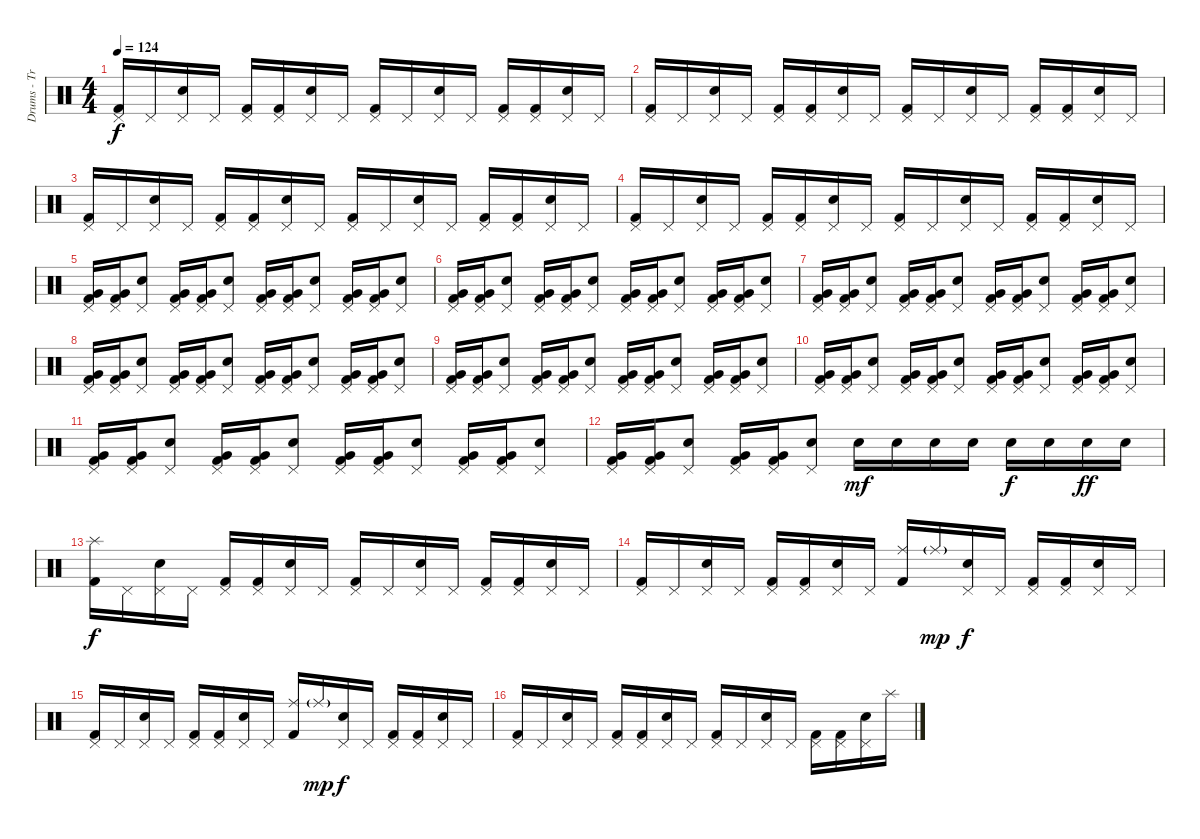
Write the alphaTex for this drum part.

\track ("Drums - Travis Barker" "Drums - Tr") {instrument percussion}
\staff {score}
\articulation defaults
\ts (4 4)
\tempo 124
\clef neutral
\ks c
("Pedal Hi-Hat (hit)" "Kick (hit) 2").16{dy f} "Pedal Hi-Hat (hit)".16 ("Pedal Hi-Hat (hit)" "Electric Snare (hit)").16 "Pedal Hi-Hat (hit)".16 ("Pedal Hi-Hat (hit)" "Kick (hit) 2").16 ("Pedal Hi-Hat (hit)" "Kick (hit) 2").16 ("Pedal Hi-Hat (hit)" "Electric Snare (hit)").16 "Pedal Hi-Hat (hit)".16 ("Pedal Hi-Hat (hit)" "Kick (hit) 2").16 "Pedal Hi-Hat (hit)".16 ("Pedal Hi-Hat (hit)" "Electric Snare (hit)").16 "Pedal Hi-Hat (hit)".16 ("Pedal Hi-Hat (hit)" "Kick (hit) 2").16 ("Pedal Hi-Hat (hit)" "Kick (hit) 2").16 ("Pedal Hi-Hat (hit)" "Electric Snare (hit)").16 "Pedal Hi-Hat (hit)".16 |
("Pedal Hi-Hat (hit)" "Kick (hit) 2").16 "Pedal Hi-Hat (hit)".16 ("Pedal Hi-Hat (hit)" "Electric Snare (hit)").16 "Pedal Hi-Hat (hit)".16 ("Pedal Hi-Hat (hit)" "Kick (hit) 2").16 ("Pedal Hi-Hat (hit)" "Kick (hit) 2").16 ("Pedal Hi-Hat (hit)" "Electric Snare (hit)").16 "Pedal Hi-Hat (hit)".16 ("Pedal Hi-Hat (hit)" "Kick (hit) 2").16 "Pedal Hi-Hat (hit)".16 ("Pedal Hi-Hat (hit)" "Electric Snare (hit)").16 "Pedal Hi-Hat (hit)".16 ("Pedal Hi-Hat (hit)" "Kick (hit) 2").16 ("Pedal Hi-Hat (hit)" "Kick (hit) 2").16 ("Pedal Hi-Hat (hit)" "Electric Snare (hit)").16 "Pedal Hi-Hat (hit)".16 |
("Pedal Hi-Hat (hit)" "Kick (hit) 2").16 "Pedal Hi-Hat (hit)".16 ("Pedal Hi-Hat (hit)" "Electric Snare (hit)").16 "Pedal Hi-Hat (hit)".16 ("Pedal Hi-Hat (hit)" "Kick (hit) 2").16 ("Pedal Hi-Hat (hit)" "Kick (hit) 2").16 ("Pedal Hi-Hat (hit)" "Electric Snare (hit)").16 "Pedal Hi-Hat (hit)".16 ("Pedal Hi-Hat (hit)" "Kick (hit) 2").16 "Pedal Hi-Hat (hit)".16 ("Pedal Hi-Hat (hit)" "Electric Snare (hit)").16 "Pedal Hi-Hat (hit)".16 ("Pedal Hi-Hat (hit)" "Kick (hit) 2").16 ("Pedal Hi-Hat (hit)" "Kick (hit) 2").16 ("Pedal Hi-Hat (hit)" "Electric Snare (hit)").16 "Pedal Hi-Hat (hit)".16 |
("Pedal Hi-Hat (hit)" "Kick (hit) 2").16 "Pedal Hi-Hat (hit)".16 ("Pedal Hi-Hat (hit)" "Electric Snare (hit)").16 "Pedal Hi-Hat (hit)".16 ("Pedal Hi-Hat (hit)" "Kick (hit) 2").16 ("Pedal Hi-Hat (hit)" "Kick (hit) 2").16 ("Pedal Hi-Hat (hit)" "Electric Snare (hit)").16 "Pedal Hi-Hat (hit)".16 ("Pedal Hi-Hat (hit)" "Kick (hit) 2").16 "Pedal Hi-Hat (hit)".16 ("Pedal Hi-Hat (hit)" "Electric Snare (hit)").16 "Pedal Hi-Hat (hit)".16 ("Pedal Hi-Hat (hit)" "Kick (hit) 2").16 ("Pedal Hi-Hat (hit)" "Kick (hit) 2").16 ("Pedal Hi-Hat (hit)" "Electric Snare (hit)").16 "Pedal Hi-Hat (hit)".16 |
("Pedal Hi-Hat (hit)" "Very Low Tom (hit)" "Kick (hit) 2").16 ("Pedal Hi-Hat (hit)" "Very Low Tom (hit)" "Kick (hit) 2").16 ("Pedal Hi-Hat (hit)" "Electric Snare (hit)").8 ("Pedal Hi-Hat (hit)" "Very Low Tom (hit)" "Kick (hit) 2").16 ("Pedal Hi-Hat (hit)" "Very Low Tom (hit)" "Kick (hit) 2").16 ("Pedal Hi-Hat (hit)" "Electric Snare (hit)").8 ("Pedal Hi-Hat (hit)" "Very Low Tom (hit)" "Kick (hit) 2").16 ("Pedal Hi-Hat (hit)" "Very Low Tom (hit)" "Kick (hit) 2").16 ("Pedal Hi-Hat (hit)" "Electric Snare (hit)").8 ("Pedal Hi-Hat (hit)" "Very Low Tom (hit)" "Kick (hit) 2").16 ("Pedal Hi-Hat (hit)" "Very Low Tom (hit)" "Kick (hit) 2").16 ("Pedal Hi-Hat (hit)" "Electric Snare (hit)").8 |
("Pedal Hi-Hat (hit)" "Very Low Tom (hit)" "Kick (hit) 2").16 ("Pedal Hi-Hat (hit)" "Very Low Tom (hit)" "Kick (hit) 2").16 ("Pedal Hi-Hat (hit)" "Electric Snare (hit)").8 ("Pedal Hi-Hat (hit)" "Very Low Tom (hit)" "Kick (hit) 2").16 ("Pedal Hi-Hat (hit)" "Very Low Tom (hit)" "Kick (hit) 2").16 ("Pedal Hi-Hat (hit)" "Electric Snare (hit)").8 ("Pedal Hi-Hat (hit)" "Very Low Tom (hit)" "Kick (hit) 2").16 ("Pedal Hi-Hat (hit)" "Very Low Tom (hit)" "Kick (hit) 2").16 ("Pedal Hi-Hat (hit)" "Electric Snare (hit)").8 ("Pedal Hi-Hat (hit)" "Very Low Tom (hit)" "Kick (hit) 2").16 ("Pedal Hi-Hat (hit)" "Very Low Tom (hit)" "Kick (hit) 2").16 ("Pedal Hi-Hat (hit)" "Electric Snare (hit)").8 |
("Pedal Hi-Hat (hit)" "Very Low Tom (hit)" "Kick (hit) 2").16 ("Pedal Hi-Hat (hit)" "Very Low Tom (hit)" "Kick (hit) 2").16 ("Pedal Hi-Hat (hit)" "Electric Snare (hit)").8 ("Pedal Hi-Hat (hit)" "Very Low Tom (hit)" "Kick (hit) 2").16 ("Pedal Hi-Hat (hit)" "Very Low Tom (hit)" "Kick (hit) 2").16 ("Pedal Hi-Hat (hit)" "Electric Snare (hit)").8 ("Pedal Hi-Hat (hit)" "Very Low Tom (hit)" "Kick (hit) 2").16 ("Pedal Hi-Hat (hit)" "Very Low Tom (hit)" "Kick (hit) 2").16 ("Pedal Hi-Hat (hit)" "Electric Snare (hit)").8 ("Pedal Hi-Hat (hit)" "Very Low Tom (hit)" "Kick (hit) 2").16 ("Pedal Hi-Hat (hit)" "Very Low Tom (hit)" "Kick (hit) 2").16 ("Pedal Hi-Hat (hit)" "Electric Snare (hit)").8 |
("Pedal Hi-Hat (hit)" "Very Low Tom (hit)" "Kick (hit) 2").16 ("Pedal Hi-Hat (hit)" "Very Low Tom (hit)" "Kick (hit) 2").16 ("Pedal Hi-Hat (hit)" "Electric Snare (hit)").8 ("Pedal Hi-Hat (hit)" "Very Low Tom (hit)" "Kick (hit) 2").16 ("Pedal Hi-Hat (hit)" "Very Low Tom (hit)" "Kick (hit) 2").16 ("Pedal Hi-Hat (hit)" "Electric Snare (hit)").8 ("Pedal Hi-Hat (hit)" "Very Low Tom (hit)" "Kick (hit) 2").16 ("Pedal Hi-Hat (hit)" "Very Low Tom (hit)" "Kick (hit) 2").16 ("Pedal Hi-Hat (hit)" "Electric Snare (hit)").8 ("Pedal Hi-Hat (hit)" "Very Low Tom (hit)" "Kick (hit) 2").16 ("Pedal Hi-Hat (hit)" "Very Low Tom (hit)" "Kick (hit) 2").16 ("Pedal Hi-Hat (hit)" "Electric Snare (hit)").8 |
("Pedal Hi-Hat (hit)" "Very Low Tom (hit)" "Kick (hit) 2").16 ("Pedal Hi-Hat (hit)" "Very Low Tom (hit)" "Kick (hit) 2").16 ("Pedal Hi-Hat (hit)" "Electric Snare (hit)").8 ("Pedal Hi-Hat (hit)" "Very Low Tom (hit)" "Kick (hit) 2").16 ("Pedal Hi-Hat (hit)" "Very Low Tom (hit)" "Kick (hit) 2").16 ("Pedal Hi-Hat (hit)" "Electric Snare (hit)").8 ("Pedal Hi-Hat (hit)" "Very Low Tom (hit)" "Kick (hit) 2").16 ("Pedal Hi-Hat (hit)" "Very Low Tom (hit)" "Kick (hit) 2").16 ("Pedal Hi-Hat (hit)" "Electric Snare (hit)").8 ("Pedal Hi-Hat (hit)" "Very Low Tom (hit)" "Kick (hit) 2").16 ("Pedal Hi-Hat (hit)" "Very Low Tom (hit)" "Kick (hit) 2").16 ("Pedal Hi-Hat (hit)" "Electric Snare (hit)").8 |
("Pedal Hi-Hat (hit)" "Very Low Tom (hit)" "Kick (hit) 2").16 ("Pedal Hi-Hat (hit)" "Very Low Tom (hit)" "Kick (hit) 2").16 ("Pedal Hi-Hat (hit)" "Electric Snare (hit)").8 ("Pedal Hi-Hat (hit)" "Very Low Tom (hit)" "Kick (hit) 2").16 ("Pedal Hi-Hat (hit)" "Very Low Tom (hit)" "Kick (hit) 2").16 ("Pedal Hi-Hat (hit)" "Electric Snare (hit)").8 ("Pedal Hi-Hat (hit)" "Very Low Tom (hit)" "Kick (hit) 2").16 ("Pedal Hi-Hat (hit)" "Very Low Tom (hit)" "Kick (hit) 2").16 ("Pedal Hi-Hat (hit)" "Electric Snare (hit)").8 ("Pedal Hi-Hat (hit)" "Very Low Tom (hit)" "Kick (hit) 2").16 ("Pedal Hi-Hat (hit)" "Very Low Tom (hit)" "Kick (hit) 2").16 ("Pedal Hi-Hat (hit)" "Electric Snare (hit)").8 |
("Pedal Hi-Hat (hit)" "Very Low Tom (hit)" "Kick (hit) 2").16 ("Pedal Hi-Hat (hit)" "Very Low Tom (hit)" "Kick (hit) 2").16 ("Pedal Hi-Hat (hit)" "Electric Snare (hit)").8 ("Pedal Hi-Hat (hit)" "Very Low Tom (hit)" "Kick (hit) 2").16 ("Pedal Hi-Hat (hit)" "Very Low Tom (hit)" "Kick (hit) 2").16 ("Pedal Hi-Hat (hit)" "Electric Snare (hit)").8 ("Pedal Hi-Hat (hit)" "Very Low Tom (hit)" "Kick (hit) 2").16 ("Pedal Hi-Hat (hit)" "Very Low Tom (hit)" "Kick (hit) 2").16 ("Pedal Hi-Hat (hit)" "Electric Snare (hit)").8 ("Pedal Hi-Hat (hit)" "Very Low Tom (hit)" "Kick (hit) 2").16 ("Pedal Hi-Hat (hit)" "Very Low Tom (hit)" "Kick (hit) 2").16 ("Pedal Hi-Hat (hit)" "Electric Snare (hit)").8 |
("Pedal Hi-Hat (hit)" "Very Low Tom (hit)" "Kick (hit) 2").16 ("Pedal Hi-Hat (hit)" "Very Low Tom (hit)" "Kick (hit) 2").16 ("Pedal Hi-Hat (hit)" "Electric Snare (hit)").8 ("Pedal Hi-Hat (hit)" "Very Low Tom (hit)" "Kick (hit) 2").16 ("Pedal Hi-Hat (hit)" "Very Low Tom (hit)" "Kick (hit) 2").16 ("Pedal Hi-Hat (hit)" "Electric Snare (hit)").8 "Electric Snare (hit)".16{dy mf} "Electric Snare (hit)".16 "Electric Snare (hit)".16 "Electric Snare (hit)".16 "Electric Snare (hit)".16{dy f} "Electric Snare (hit)".16 "Electric Snare (hit)".16{dy ff} "Electric Snare (hit)".16 |
("Splash (hit)" "Kick (hit) 2").16{dy f} "Pedal Hi-Hat (hit)".16 ("Pedal Hi-Hat (hit)" "Electric Snare (hit)").16 "Pedal Hi-Hat (hit)".16 ("Pedal Hi-Hat (hit)" "Kick (hit) 2").16 ("Pedal Hi-Hat (hit)" "Kick (hit) 2").16 ("Pedal Hi-Hat (hit)" "Electric Snare (hit)").16 "Pedal Hi-Hat (hit)".16 ("Pedal Hi-Hat (hit)" "Kick (hit) 2").16 "Pedal Hi-Hat (hit)".16 ("Pedal Hi-Hat (hit)" "Electric Snare (hit)").16 "Pedal Hi-Hat (hit)".16 ("Pedal Hi-Hat (hit)" "Kick (hit) 2").16 ("Pedal Hi-Hat (hit)" "Kick (hit) 2").16 ("Pedal Hi-Hat (hit)" "Electric Snare (hit)").16 "Pedal Hi-Hat (hit)".16 |
("Pedal Hi-Hat (hit)" "Kick (hit) 2").16 "Pedal Hi-Hat (hit)".16 ("Pedal Hi-Hat (hit)" "Electric Snare (hit)").16 "Pedal Hi-Hat (hit)".16 ("Pedal Hi-Hat (hit)" "Kick (hit) 2").16 ("Pedal Hi-Hat (hit)" "Kick (hit) 2").16 ("Pedal Hi-Hat (hit)" "Electric Snare (hit)").16 "Pedal Hi-Hat (hit)".16 ("Ride (middle)" "Kick (hit) 2").16 "Ride (middle)"{g}.16{dy mp} ("Pedal Hi-Hat (hit)" "Electric Snare (hit)").16{dy f} "Pedal Hi-Hat (hit)".16 ("Pedal Hi-Hat (hit)" "Kick (hit) 2").16 ("Pedal Hi-Hat (hit)" "Kick (hit) 2").16 ("Pedal Hi-Hat (hit)" "Electric Snare (hit)").16 "Pedal Hi-Hat (hit)".16 |
("Pedal Hi-Hat (hit)" "Kick (hit) 2").16 "Pedal Hi-Hat (hit)".16 ("Pedal Hi-Hat (hit)" "Electric Snare (hit)").16 "Pedal Hi-Hat (hit)".16 ("Pedal Hi-Hat (hit)" "Kick (hit) 2").16 ("Pedal Hi-Hat (hit)" "Kick (hit) 2").16 ("Pedal Hi-Hat (hit)" "Electric Snare (hit)").16 "Pedal Hi-Hat (hit)".16 ("Ride (middle)" "Kick (hit) 2").16 "Ride (middle)"{g}.16{dy mp} ("Pedal Hi-Hat (hit)" "Electric Snare (hit)").16{dy f} "Pedal Hi-Hat (hit)".16 ("Pedal Hi-Hat (hit)" "Kick (hit) 2").16 ("Pedal Hi-Hat (hit)" "Kick (hit) 2").16 ("Pedal Hi-Hat (hit)" "Electric Snare (hit)").16 "Pedal Hi-Hat (hit)".16 |
("Pedal Hi-Hat (hit)" "Kick (hit) 2").16 "Pedal Hi-Hat (hit)".16 ("Pedal Hi-Hat (hit)" "Electric Snare (hit)").16 "Pedal Hi-Hat (hit)".16 ("Pedal Hi-Hat (hit)" "Kick (hit) 2").16 ("Pedal Hi-Hat (hit)" "Kick (hit) 2").16 ("Pedal Hi-Hat (hit)" "Electric Snare (hit)").16 "Pedal Hi-Hat (hit)".16 ("Pedal Hi-Hat (hit)" "Kick (hit) 2").16 "Pedal Hi-Hat (hit)".16 ("Pedal Hi-Hat (hit)" "Electric Snare (hit)").16 "Pedal Hi-Hat (hit)".16 ("Pedal Hi-Hat (hit)" "Kick (hit) 2").16 ("Pedal Hi-Hat (hit)" "Kick (hit) 2").16 ("Pedal Hi-Hat (hit)" "Electric Snare (hit)").16 "Splash (hit)".16
